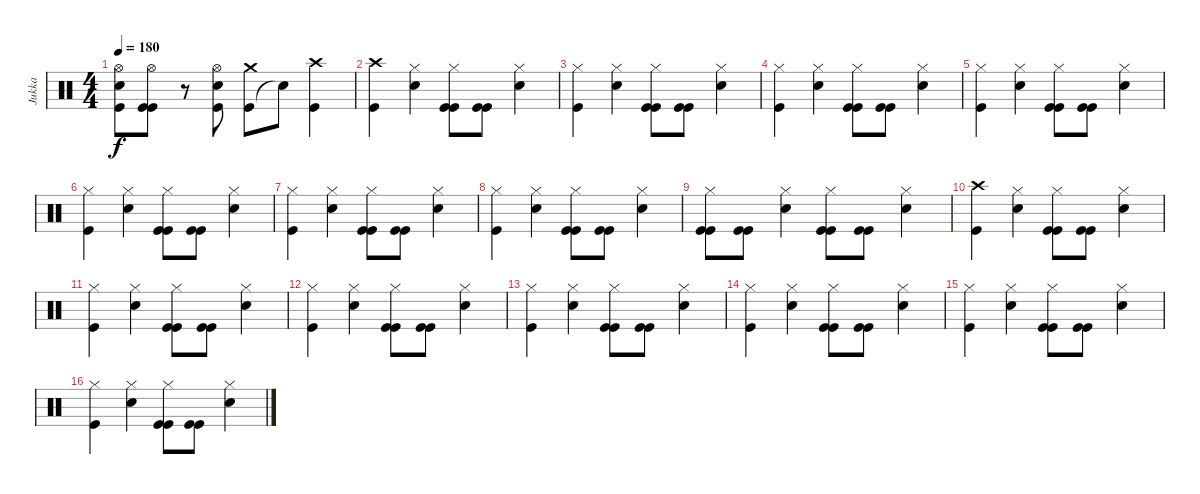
\track ("Jukka" "Jukka") {instrument percussion}
\staff {score}
\articulation defaults
\ts (4 4)
\tempo 180
\clef neutral
\ks c
("Hi-Hat (open)" "Snare (hit) 2" "Kick (hit)").8{dy f} ("Hi-Hat (open)" "Kick (hit)" "Kick (hit)").8 r.8 ("Hi-Hat (open)" "Snare (hit) 2" "Kick (hit)").8 ("Kick (hit)" "Crash medium (hit)").8 "Snare (hit)"{t}.8 ("Kick (hit)" "Crash high (hit)").4 |
("Crash high (hit)" "Kick (hit)").4 ("Hi-Hat (closed)" "Snare (hit) 2").4 ("Hi-Hat (closed)" "Kick (hit)" "Kick (hit)").8 ("Kick (hit)" "Kick (hit)").8 ("Hi-Hat (closed)" "Snare (hit) 2").4 |
("Hi-Hat (closed)" "Kick (hit)").4 ("Hi-Hat (closed)" "Snare (hit) 2").4 ("Hi-Hat (closed)" "Kick (hit)" "Kick (hit)").8 ("Kick (hit)" "Kick (hit)").8 ("Hi-Hat (closed)" "Snare (hit) 2").4 |
("Hi-Hat (closed)" "Kick (hit)").4 ("Hi-Hat (closed)" "Snare (hit) 2").4 ("Hi-Hat (closed)" "Kick (hit)" "Kick (hit)").8 ("Kick (hit)" "Kick (hit)").8 ("Hi-Hat (closed)" "Snare (hit) 2").4 |
("Hi-Hat (closed)" "Kick (hit)").4 ("Hi-Hat (closed)" "Snare (hit) 2").4 ("Hi-Hat (closed)" "Kick (hit)" "Kick (hit)").8 ("Kick (hit)" "Kick (hit)").8 ("Hi-Hat (closed)" "Snare (hit) 2").4 |
("Hi-Hat (closed)" "Kick (hit)").4 ("Hi-Hat (closed)" "Snare (hit) 2").4 ("Hi-Hat (closed)" "Kick (hit)" "Kick (hit)").8 ("Kick (hit)" "Kick (hit)").8 ("Hi-Hat (closed)" "Snare (hit) 2").4 |
("Hi-Hat (closed)" "Kick (hit)").4 ("Hi-Hat (closed)" "Snare (hit) 2").4 ("Hi-Hat (closed)" "Kick (hit)" "Kick (hit)").8 ("Kick (hit)" "Kick (hit)").8 ("Hi-Hat (closed)" "Snare (hit) 2").4 |
("Hi-Hat (closed)" "Kick (hit)").4 ("Hi-Hat (closed)" "Snare (hit) 2").4 ("Hi-Hat (closed)" "Kick (hit)" "Kick (hit)").8 ("Kick (hit)" "Kick (hit)").8 ("Hi-Hat (closed)" "Snare (hit) 2").4 |
("Hi-Hat (closed)" "Kick (hit)" "Kick (hit)").8 ("Kick (hit)" "Kick (hit)").8 ("Hi-Hat (closed)" "Snare (hit) 2").4 ("Hi-Hat (closed)" "Kick (hit)" "Kick (hit)").8 ("Kick (hit)" "Kick (hit)").8 ("Hi-Hat (closed)" "Snare (hit) 2").4 |
("Crash high (hit)" "Kick (hit)").4 ("Hi-Hat (closed)" "Snare (hit) 2").4 ("Hi-Hat (closed)" "Kick (hit)" "Kick (hit)").8 ("Kick (hit)" "Kick (hit)").8 ("Hi-Hat (closed)" "Snare (hit) 2").4 |
("Hi-Hat (closed)" "Kick (hit)").4 ("Hi-Hat (closed)" "Snare (hit) 2").4 ("Hi-Hat (closed)" "Kick (hit)" "Kick (hit)").8 ("Kick (hit)" "Kick (hit)").8 ("Hi-Hat (closed)" "Snare (hit) 2").4 |
("Hi-Hat (closed)" "Kick (hit)").4 ("Hi-Hat (closed)" "Snare (hit) 2").4 ("Hi-Hat (closed)" "Kick (hit)" "Kick (hit)").8 ("Kick (hit)" "Kick (hit)").8 ("Hi-Hat (closed)" "Snare (hit) 2").4 |
("Hi-Hat (closed)" "Kick (hit)").4 ("Hi-Hat (closed)" "Snare (hit) 2").4 ("Hi-Hat (closed)" "Kick (hit)" "Kick (hit)").8 ("Kick (hit)" "Kick (hit)").8 ("Hi-Hat (closed)" "Snare (hit) 2").4 |
("Hi-Hat (closed)" "Kick (hit)").4 ("Hi-Hat (closed)" "Snare (hit) 2").4 ("Hi-Hat (closed)" "Kick (hit)" "Kick (hit)").8 ("Kick (hit)" "Kick (hit)").8 ("Hi-Hat (closed)" "Snare (hit) 2").4 |
("Hi-Hat (closed)" "Kick (hit)").4 ("Hi-Hat (closed)" "Snare (hit) 2").4 ("Hi-Hat (closed)" "Kick (hit)" "Kick (hit)").8 ("Kick (hit)" "Kick (hit)").8 ("Hi-Hat (closed)" "Snare (hit) 2").4 |
("Hi-Hat (closed)" "Kick (hit)").4 ("Hi-Hat (closed)" "Snare (hit) 2").4 ("Hi-Hat (closed)" "Kick (hit)" "Kick (hit)").8 ("Kick (hit)" "Kick (hit)").8 ("Hi-Hat (closed)" "Snare (hit) 2").4
